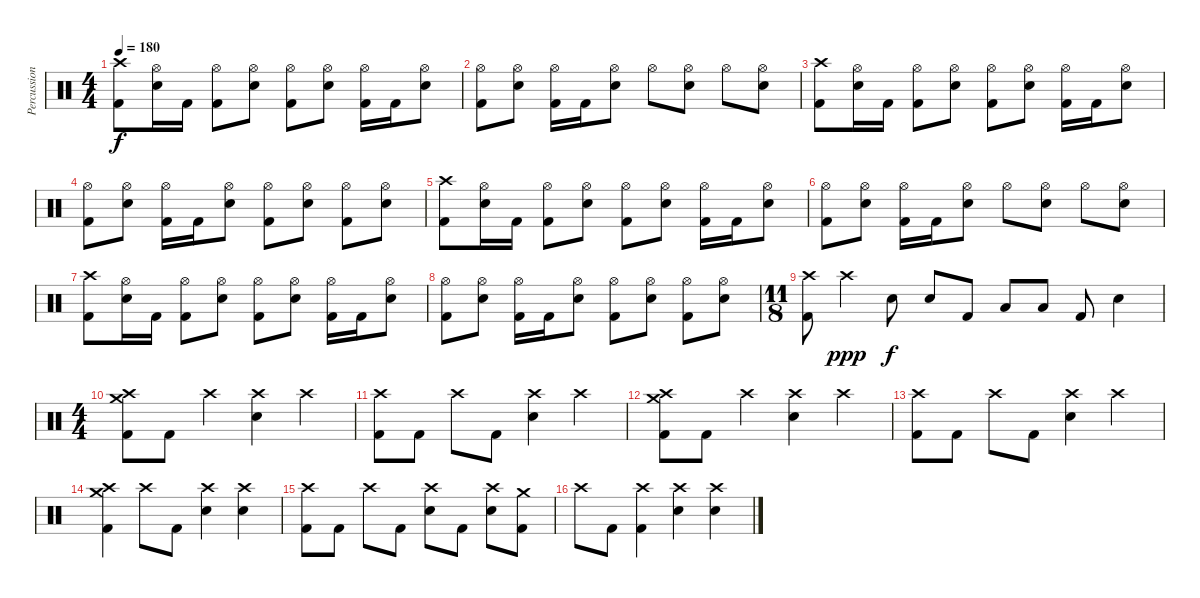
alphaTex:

\track ("Percussion" "Percussion") {instrument percussion}
\staff {score}
\articulation defaults
\ts (4 4)
\tempo 180
\clef neutral
\ks c
("Crash high (hit)" "Kick (hit) 2").8{dy f} ("Hi-Hat (open)" "Electric Snare (hit)").16 "Kick (hit) 2".16 ("Hi-Hat (open)" "Kick (hit) 2").8 ("Hi-Hat (open)" "Electric Snare (hit)").8 ("Hi-Hat (open)" "Kick (hit) 2").8 ("Hi-Hat (open)" "Electric Snare (hit)").8 ("Hi-Hat (open)" "Kick (hit) 2").16 "Kick (hit) 2".16 ("Hi-Hat (open)" "Electric Snare (hit)").8 |
("Hi-Hat (open)" "Kick (hit) 2").8 ("Hi-Hat (open)" "Electric Snare (hit)").8 ("Hi-Hat (open)" "Kick (hit) 2").16 "Kick (hit) 2".16 ("Hi-Hat (open)" "Electric Snare (hit)").8 "Hi-Hat (open)".8 ("Hi-Hat (open)" "Electric Snare (hit)").8 "Hi-Hat (open)".8 ("Hi-Hat (open)" "Electric Snare (hit)").8 |
("Crash high (hit)" "Kick (hit) 2").8 ("Hi-Hat (open)" "Electric Snare (hit)").16 "Kick (hit) 2".16 ("Hi-Hat (open)" "Kick (hit) 2").8 ("Hi-Hat (open)" "Electric Snare (hit)").8 ("Hi-Hat (open)" "Kick (hit) 2").8 ("Hi-Hat (open)" "Electric Snare (hit)").8 ("Hi-Hat (open)" "Kick (hit) 2").16 "Kick (hit) 2".16 ("Hi-Hat (open)" "Electric Snare (hit)").8 |
("Hi-Hat (open)" "Kick (hit) 2").8 ("Hi-Hat (open)" "Electric Snare (hit)").8 ("Hi-Hat (open)" "Kick (hit) 2").16 "Kick (hit) 2".16 ("Hi-Hat (open)" "Electric Snare (hit)").8 ("Hi-Hat (open)" "Kick (hit) 2").8 ("Hi-Hat (open)" "Electric Snare (hit)").8 ("Hi-Hat (open)" "Kick (hit) 2").8 ("Hi-Hat (open)" "Electric Snare (hit)").8 |
("Crash high (hit)" "Kick (hit) 2").8 ("Hi-Hat (open)" "Electric Snare (hit)").16 "Kick (hit) 2".16 ("Hi-Hat (open)" "Kick (hit) 2").8 ("Hi-Hat (open)" "Electric Snare (hit)").8 ("Hi-Hat (open)" "Kick (hit) 2").8 ("Hi-Hat (open)" "Electric Snare (hit)").8 ("Hi-Hat (open)" "Kick (hit) 2").16 "Kick (hit) 2".16 ("Hi-Hat (open)" "Electric Snare (hit)").8 |
("Hi-Hat (open)" "Kick (hit) 2").8 ("Hi-Hat (open)" "Electric Snare (hit)").8 ("Hi-Hat (open)" "Kick (hit) 2").16 "Kick (hit) 2".16 ("Hi-Hat (open)" "Electric Snare (hit)").8 "Hi-Hat (open)".8 ("Hi-Hat (open)" "Electric Snare (hit)").8 "Hi-Hat (open)".8 ("Hi-Hat (open)" "Electric Snare (hit)").8 |
("Crash high (hit)" "Kick (hit) 2").8 ("Hi-Hat (open)" "Electric Snare (hit)").16 "Kick (hit) 2".16 ("Hi-Hat (open)" "Kick (hit) 2").8 ("Hi-Hat (open)" "Electric Snare (hit)").8 ("Hi-Hat (open)" "Kick (hit) 2").8 ("Hi-Hat (open)" "Electric Snare (hit)").8 ("Hi-Hat (open)" "Kick (hit) 2").16 "Kick (hit) 2".16 ("Hi-Hat (open)" "Electric Snare (hit)").8 |
("Hi-Hat (open)" "Kick (hit) 2").8 ("Hi-Hat (open)" "Electric Snare (hit)").8 ("Hi-Hat (open)" "Kick (hit) 2").16 "Kick (hit) 2".16 ("Hi-Hat (open)" "Electric Snare (hit)").8 ("Hi-Hat (open)" "Kick (hit) 2").8 ("Hi-Hat (open)" "Electric Snare (hit)").8 ("Hi-Hat (open)" "Kick (hit) 2").8 ("Hi-Hat (open)" "Electric Snare (hit)").8 |
\ts (11 8)
("Crash high (hit)" "Kick (hit) 2").8 "Crash high (hit)".4{dy ppp} "Electric Snare (hit)".8{dy f} "Electric Snare (hit)".8 "Kick (hit) 2".8 "Low Tom (hit)".8 "Low Tom (hit)".8 "Kick (hit) 2".8 "Electric Snare (hit)".4 |
\ts (4 4)
("Crash high (hit)" "Crash medium (hit)" "Kick (hit) 2").8 "Kick (hit) 2".8 "Crash high (hit)".4 ("Crash high (hit)" "Electric Snare (hit)").4 "Crash high (hit)".4 |
("Crash high (hit)" "Kick (hit) 2").8 "Kick (hit) 2".8 "Crash high (hit)".8 "Kick (hit) 2".8 ("Crash high (hit)" "Electric Snare (hit)").4 "Crash high (hit)".4 |
("Crash high (hit)" "Crash medium (hit)" "Kick (hit) 2").8 "Kick (hit) 2".8 "Crash high (hit)".4 ("Crash high (hit)" "Electric Snare (hit)").4 "Crash high (hit)".4 |
("Crash high (hit)" "Kick (hit) 2").8 "Kick (hit) 2".8 "Crash high (hit)".8 "Kick (hit) 2".8 ("Crash high (hit)" "Electric Snare (hit)").4 "Crash high (hit)".4 |
("Crash high (hit)" "Crash medium (hit)" "Kick (hit) 2").4 "Crash high (hit)".8 "Kick (hit) 2".8 ("Crash high (hit)" "Electric Snare (hit)").4 ("Crash high (hit)" "Electric Snare (hit)").4 |
("Crash high (hit)" "Kick (hit) 2").8 "Kick (hit) 2".8 "Crash high (hit)".8 "Kick (hit) 2".8 ("Crash high (hit)" "Electric Snare (hit)").8 "Kick (hit) 2".8 ("Crash high (hit)" "Electric Snare (hit)").8 ("Crash medium (hit)" "Kick (hit) 2").8 |
"Crash high (hit)".8 "Kick (hit) 2".8 ("Crash high (hit)" "Kick (hit) 2").4 ("Crash high (hit)" "Electric Snare (hit)").4 ("Crash high (hit)" "Electric Snare (hit)").4
